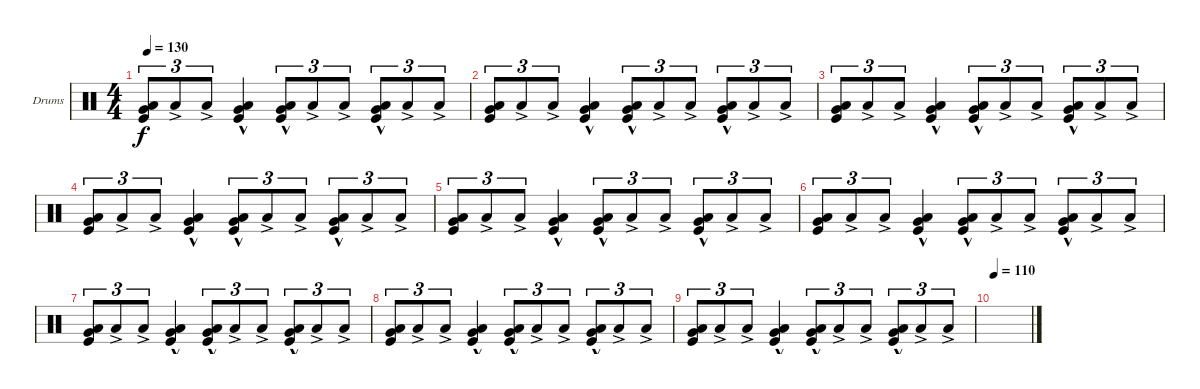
\bracketExtendMode groupsimilarinstruments
\firstSystemTrackNameOrientation horizontal
\otherSystemsTrackNameOrientation horizontal
\track ("Drumkit" "Drums") {instrument percussion}
\staff {score}
\articulation defaults
\ts (4 4)
\tempo 130
\clef neutral
\ks c
("Kick (hit)" "Low Tom (hit)" "Very Low Tom (hit)").8{tu (3 2) dy f} "Low Tom (hit)"{ac}.8{tu (3 2)} "Low Tom (hit)"{ac}.8{tu (3 2)} ("Low Tom (hit)"{hac} "Kick (hit)" "Very Low Tom (hit)").4 ("Low Tom (hit)"{hac} "Kick (hit)" "Very Low Tom (hit)").8{tu (3 2)} "Low Tom (hit)"{ac}.8{tu (3 2)} "Low Tom (hit)"{ac}.8{tu (3 2)} ("Low Tom (hit)"{hac} "Kick (hit)" "Very Low Tom (hit)").8{tu (3 2)} "Low Tom (hit)"{ac}.8{tu (3 2)} "Low Tom (hit)"{ac}.8{tu (3 2)} |
("Kick (hit)" "Low Tom (hit)" "Very Low Tom (hit)").8{tu (3 2)} "Low Tom (hit)"{ac}.8{tu (3 2)} "Low Tom (hit)"{ac}.8{tu (3 2)} ("Low Tom (hit)"{hac} "Kick (hit)" "Very Low Tom (hit)").4 ("Low Tom (hit)"{hac} "Kick (hit)" "Very Low Tom (hit)").8{tu (3 2)} "Low Tom (hit)"{ac}.8{tu (3 2)} "Low Tom (hit)"{ac}.8{tu (3 2)} ("Low Tom (hit)"{hac} "Kick (hit)" "Very Low Tom (hit)").8{tu (3 2)} "Low Tom (hit)"{ac}.8{tu (3 2)} "Low Tom (hit)"{ac}.8{tu (3 2)} |
("Kick (hit)" "Low Tom (hit)" "Very Low Tom (hit)").8{tu (3 2)} "Low Tom (hit)"{ac}.8{tu (3 2)} "Low Tom (hit)"{ac}.8{tu (3 2)} ("Low Tom (hit)"{hac} "Kick (hit)" "Very Low Tom (hit)").4 ("Low Tom (hit)"{hac} "Kick (hit)" "Very Low Tom (hit)").8{tu (3 2)} "Low Tom (hit)"{ac}.8{tu (3 2)} "Low Tom (hit)"{ac}.8{tu (3 2)} ("Low Tom (hit)"{hac} "Kick (hit)" "Very Low Tom (hit)").8{tu (3 2)} "Low Tom (hit)"{ac}.8{tu (3 2)} "Low Tom (hit)"{ac}.8{tu (3 2)} |
("Kick (hit)" "Low Tom (hit)" "Very Low Tom (hit)").8{tu (3 2)} "Low Tom (hit)"{ac}.8{tu (3 2)} "Low Tom (hit)"{ac}.8{tu (3 2)} ("Low Tom (hit)"{hac} "Kick (hit)" "Very Low Tom (hit)").4 ("Low Tom (hit)"{hac} "Kick (hit)" "Very Low Tom (hit)").8{tu (3 2)} "Low Tom (hit)"{ac}.8{tu (3 2)} "Low Tom (hit)"{ac}.8{tu (3 2)} ("Low Tom (hit)"{hac} "Kick (hit)" "Very Low Tom (hit)").8{tu (3 2)} "Low Tom (hit)"{ac}.8{tu (3 2)} "Low Tom (hit)"{ac}.8{tu (3 2)} |
("Kick (hit)" "Low Tom (hit)" "Very Low Tom (hit)").8{tu (3 2)} "Low Tom (hit)"{ac}.8{tu (3 2)} "Low Tom (hit)"{ac}.8{tu (3 2)} ("Low Tom (hit)"{hac} "Kick (hit)" "Very Low Tom (hit)").4 ("Low Tom (hit)"{hac} "Kick (hit)" "Very Low Tom (hit)").8{tu (3 2)} "Low Tom (hit)"{ac}.8{tu (3 2)} "Low Tom (hit)"{ac}.8{tu (3 2)} ("Low Tom (hit)"{hac} "Kick (hit)" "Very Low Tom (hit)").8{tu (3 2)} "Low Tom (hit)"{ac}.8{tu (3 2)} "Low Tom (hit)"{ac}.8{tu (3 2)} |
("Kick (hit)" "Low Tom (hit)" "Very Low Tom (hit)").8{tu (3 2)} "Low Tom (hit)"{ac}.8{tu (3 2)} "Low Tom (hit)"{ac}.8{tu (3 2)} ("Low Tom (hit)"{hac} "Kick (hit)" "Very Low Tom (hit)").4 ("Low Tom (hit)"{hac} "Kick (hit)" "Very Low Tom (hit)").8{tu (3 2)} "Low Tom (hit)"{ac}.8{tu (3 2)} "Low Tom (hit)"{ac}.8{tu (3 2)} ("Low Tom (hit)"{hac} "Kick (hit)" "Very Low Tom (hit)").8{tu (3 2)} "Low Tom (hit)"{ac}.8{tu (3 2)} "Low Tom (hit)"{ac}.8{tu (3 2)} |
("Kick (hit)" "Low Tom (hit)" "Very Low Tom (hit)").8{tu (3 2)} "Low Tom (hit)"{ac}.8{tu (3 2)} "Low Tom (hit)"{ac}.8{tu (3 2)} ("Low Tom (hit)"{hac} "Kick (hit)" "Very Low Tom (hit)").4 ("Low Tom (hit)"{hac} "Kick (hit)" "Very Low Tom (hit)").8{tu (3 2)} "Low Tom (hit)"{ac}.8{tu (3 2)} "Low Tom (hit)"{ac}.8{tu (3 2)} ("Low Tom (hit)"{hac} "Kick (hit)" "Very Low Tom (hit)").8{tu (3 2)} "Low Tom (hit)"{ac}.8{tu (3 2)} "Low Tom (hit)"{ac}.8{tu (3 2)} |
("Kick (hit)" "Low Tom (hit)" "Very Low Tom (hit)").8{tu (3 2)} "Low Tom (hit)"{ac}.8{tu (3 2)} "Low Tom (hit)"{ac}.8{tu (3 2)} ("Low Tom (hit)"{hac} "Kick (hit)" "Very Low Tom (hit)").4 ("Low Tom (hit)"{hac} "Kick (hit)" "Very Low Tom (hit)").8{tu (3 2)} "Low Tom (hit)"{ac}.8{tu (3 2)} "Low Tom (hit)"{ac}.8{tu (3 2)} ("Low Tom (hit)"{hac} "Kick (hit)" "Very Low Tom (hit)").8{tu (3 2)} "Low Tom (hit)"{ac}.8{tu (3 2)} "Low Tom (hit)"{ac}.8{tu (3 2)} |
("Kick (hit)" "Low Tom (hit)" "Very Low Tom (hit)").8{tu (3 2)} "Low Tom (hit)"{ac}.8{tu (3 2)} "Low Tom (hit)"{ac}.8{tu (3 2)} ("Low Tom (hit)"{hac} "Kick (hit)" "Very Low Tom (hit)").4 ("Low Tom (hit)"{hac} "Kick (hit)" "Very Low Tom (hit)").8{tu (3 2)} "Low Tom (hit)"{ac}.8{tu (3 2)} "Low Tom (hit)"{ac}.8{tu (3 2)} ("Low Tom (hit)"{hac} "Kick (hit)" "Very Low Tom (hit)").8{tu (3 2)} "Low Tom (hit)"{ac}.8{tu (3 2)} "Low Tom (hit)"{ac}.8{tu (3 2)} |
\tempo 110
